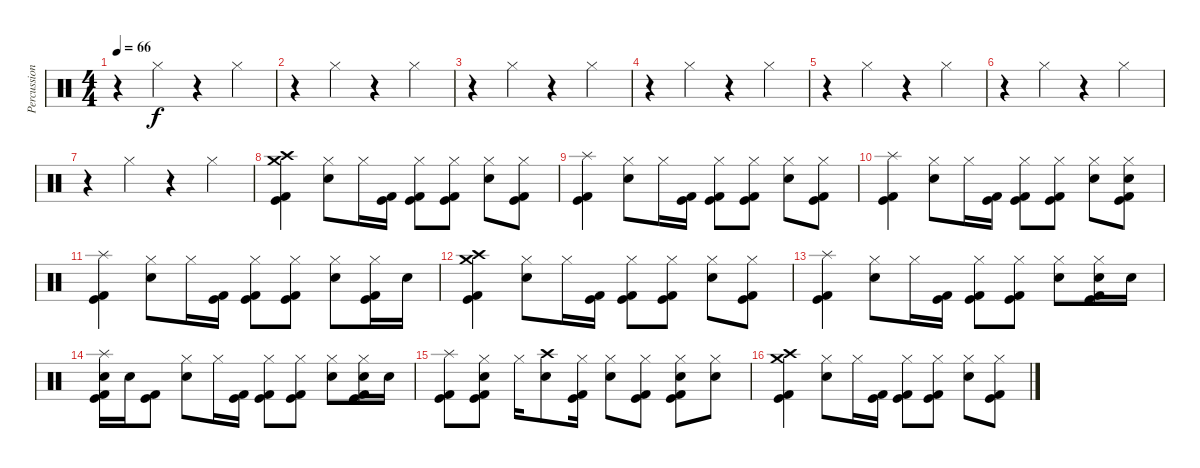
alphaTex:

\track ("Percussion" "Percussion") {instrument percussion}
\staff {score}
\articulation defaults
\ts (4 4)
\tempo 66
\clef neutral
\ks c
r.4{dy f} "Hi-Hat (closed)".4 r.4 "Hi-Hat (closed)".4 |
r.4 "Hi-Hat (closed)".4 r.4 "Hi-Hat (closed)".4 |
r.4 "Hi-Hat (closed)".4 r.4 "Hi-Hat (closed)".4 |
r.4 "Hi-Hat (closed)".4 r.4 "Hi-Hat (closed)".4 |
r.4 "Hi-Hat (closed)".4 r.4 "Hi-Hat (closed)".4 |
r.4 "Hi-Hat (closed)".4 r.4 "Hi-Hat (closed)".4 |
r.4 "Hi-Hat (closed)".4 r.4 "Hi-Hat (closed)".4 |
("Crash medium (hit)" "Crash high (hit)" "Kick (hit) 2" "Kick (hit)").4 ("Hi-Hat (closed)" "Electric Snare (hit)").8 "Hi-Hat (closed)".16 ("Kick (hit) 2" "Kick (hit)").16 ("Hi-Hat (closed)" "Kick (hit) 2" "Kick (hit)").8 ("Hi-Hat (closed)" "Kick (hit)" "Kick (hit) 2").8 ("Hi-Hat (closed)" "Electric Snare (hit)").8 ("Hi-Hat (closed)" "Kick (hit) 2" "Kick (hit)").8 |
("Splash (hit)" "Kick (hit) 2" "Kick (hit)").4 ("Hi-Hat (closed)" "Electric Snare (hit)").8 "Hi-Hat (closed)".16 ("Kick (hit) 2" "Kick (hit)").16 ("Hi-Hat (closed)" "Kick (hit) 2" "Kick (hit)").8 ("Hi-Hat (closed)" "Kick (hit)" "Kick (hit) 2").8 ("Hi-Hat (closed)" "Electric Snare (hit)").8 ("Hi-Hat (closed)" "Kick (hit) 2" "Kick (hit)").8 |
("Splash (hit)" "Kick (hit) 2" "Kick (hit)").4 ("Hi-Hat (closed)" "Electric Snare (hit)").8 "Hi-Hat (closed)".16 ("Kick (hit) 2" "Kick (hit)").16 ("Hi-Hat (closed)" "Kick (hit) 2" "Kick (hit)").8 ("Hi-Hat (closed)" "Kick (hit)" "Kick (hit) 2").8 ("Hi-Hat (closed)" "Electric Snare (hit)").8 ("Hi-Hat (closed)" "Electric Snare (hit)" "Kick (hit) 2" "Kick (hit)").8 |
("Splash (hit)" "Kick (hit) 2" "Kick (hit)").4 ("Hi-Hat (closed)" "Electric Snare (hit)").8 "Hi-Hat (closed)".16 ("Kick (hit) 2" "Kick (hit)").16 ("Hi-Hat (closed)" "Kick (hit) 2" "Kick (hit)").8 ("Hi-Hat (closed)" "Kick (hit)" "Kick (hit) 2").8 ("Hi-Hat (closed)" "Electric Snare (hit)").8 ("Hi-Hat (closed)" "Kick (hit) 2" "Kick (hit)").16 "Electric Snare (hit)".16 |
("Crash medium (hit)" "Crash high (hit)" "Kick (hit) 2" "Kick (hit)").4 ("Hi-Hat (closed)" "Electric Snare (hit)").8 "Hi-Hat (closed)".16 ("Kick (hit) 2" "Kick (hit)").16 ("Hi-Hat (closed)" "Kick (hit) 2" "Kick (hit)").8 ("Hi-Hat (closed)" "Kick (hit)" "Kick (hit) 2").8 ("Hi-Hat (closed)" "Electric Snare (hit)").8 ("Hi-Hat (closed)" "Kick (hit) 2" "Kick (hit)").8 |
("Splash (hit)" "Kick (hit) 2" "Kick (hit)").4 ("Hi-Hat (closed)" "Electric Snare (hit)").8 "Hi-Hat (closed)".16 ("Kick (hit) 2" "Kick (hit)").16 ("Hi-Hat (closed)" "Kick (hit) 2" "Kick (hit)").8 ("Hi-Hat (closed)" "Kick (hit)" "Kick (hit) 2").8 ("Hi-Hat (closed)" "Electric Snare (hit)").8 ("Hi-Hat (closed)" "Electric Snare (hit)" "Kick (hit) 2" "Kick (hit)").16 "Electric Snare (hit)".16 |
("Splash (hit)" "Electric Snare (hit)" "Kick (hit) 2" "Kick (hit)").16 "Electric Snare (hit)".16 ("Kick (hit) 2" "Kick (hit)").8 ("Hi-Hat (closed)" "Electric Snare (hit)").8 "Hi-Hat (closed)".16 ("Kick (hit) 2" "Kick (hit)").16 ("Hi-Hat (closed)" "Kick (hit) 2" "Kick (hit)").8 ("Hi-Hat (closed)" "Kick (hit)" "Kick (hit) 2").8 ("Hi-Hat (closed)" "Electric Snare (hit)").8 ("Hi-Hat (closed)" "Electric Snare (hit)" "Kick (hit) 2" "Kick (hit)").16 "Electric Snare (hit)".16 |
("Splash (hit)" "Kick (hit) 2" "Kick (hit)").8 ("Hi-Hat (closed)" "Electric Snare (hit)" "Kick (hit) 2" "Kick (hit)").8 "Hi-Hat (closed)".16 ("Crash high (hit)" "Electric Snare (hit)").8 ("Hi-Hat (closed)" "Kick (hit)" "Kick (hit) 2").16 ("Hi-Hat (closed)" "Electric Snare (hit)").8 ("Hi-Hat (closed)" "Kick (hit) 2" "Kick (hit)").8 ("Hi-Hat (closed)" "Electric Snare (hit)" "Kick (hit)" "Kick (hit) 2").8 ("Hi-Hat (closed)" "Electric Snare (hit)").8 |
("Crash medium (hit)" "Crash high (hit)" "Kick (hit) 2" "Kick (hit)").4 ("Hi-Hat (closed)" "Electric Snare (hit)").8 "Hi-Hat (closed)".16 ("Kick (hit) 2" "Kick (hit)").16 ("Hi-Hat (closed)" "Kick (hit) 2" "Kick (hit)").8 ("Hi-Hat (closed)" "Kick (hit)" "Kick (hit) 2").8 ("Hi-Hat (closed)" "Electric Snare (hit)").8 ("Hi-Hat (closed)" "Kick (hit) 2" "Kick (hit)").8
